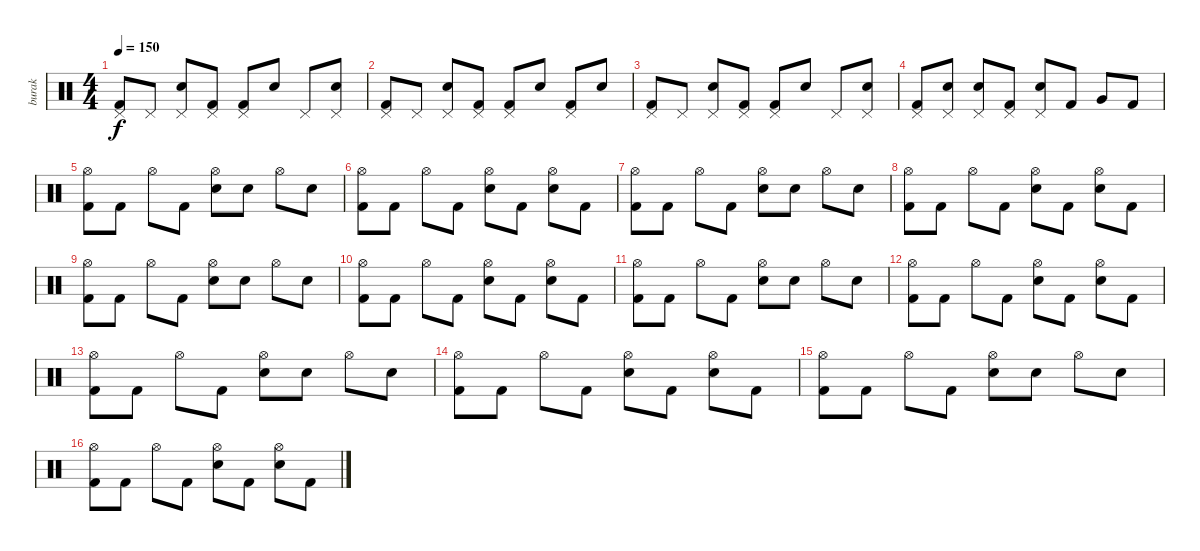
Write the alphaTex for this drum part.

\track ("burak" "burak") {instrument percussion}
\staff {score}
\articulation defaults
\ts (4 4)
\tempo 150
\clef neutral
\ks c
("Pedal Hi-Hat (hit)" "Kick (hit) 2").8{dy f} "Pedal Hi-Hat (hit)".8 ("Pedal Hi-Hat (hit)" "Electric Snare (hit)").8 ("Pedal Hi-Hat (hit)" "Kick (hit) 2").8 ("Pedal Hi-Hat (hit)" "Kick (hit) 2").8 "Electric Snare (hit)".8 "Pedal Hi-Hat (hit)".8 ("Pedal Hi-Hat (hit)" "Electric Snare (hit)").8 |
("Pedal Hi-Hat (hit)" "Kick (hit) 2").8 "Pedal Hi-Hat (hit)".8 ("Pedal Hi-Hat (hit)" "Electric Snare (hit)").8 ("Pedal Hi-Hat (hit)" "Kick (hit) 2").8 ("Pedal Hi-Hat (hit)" "Kick (hit) 2").8 "Electric Snare (hit)".8 ("Pedal Hi-Hat (hit)" "Kick (hit) 2").8 "Electric Snare (hit)".8 |
("Pedal Hi-Hat (hit)" "Kick (hit) 2").8 "Pedal Hi-Hat (hit)".8 ("Pedal Hi-Hat (hit)" "Electric Snare (hit)").8 ("Pedal Hi-Hat (hit)" "Kick (hit) 2").8 ("Pedal Hi-Hat (hit)" "Kick (hit) 2").8 "Electric Snare (hit)".8 "Pedal Hi-Hat (hit)".8 ("Pedal Hi-Hat (hit)" "Electric Snare (hit)").8 |
("Pedal Hi-Hat (hit)" "Kick (hit) 2").8 ("Pedal Hi-Hat (hit)" "Electric Snare (hit)").8 ("Pedal Hi-Hat (hit)" "Electric Snare (hit)").8 ("Pedal Hi-Hat (hit)" "Kick (hit) 2").8 ("Pedal Hi-Hat (hit)" "Electric Snare (hit)").8 "Kick (hit) 2".8 "Very Low Tom (hit)".8 "Kick (hit) 2".8 |
("Hi-Hat (open)" "Kick (hit) 2").8 "Kick (hit) 2".8 "Hi-Hat (open)".8 "Kick (hit) 2".8 ("Hi-Hat (open)" "Electric Snare (hit)").8 "Electric Snare (hit)".8 "Hi-Hat (open)".8 "Electric Snare (hit)".8 |
("Hi-Hat (open)" "Kick (hit) 2").8 "Kick (hit) 2".8 "Hi-Hat (open)".8 "Kick (hit) 2".8 ("Hi-Hat (open)" "Electric Snare (hit)").8 "Kick (hit) 2".8 ("Hi-Hat (open)" "Electric Snare (hit)").8 "Kick (hit) 2".8 |
("Hi-Hat (open)" "Kick (hit) 2").8 "Kick (hit) 2".8 "Hi-Hat (open)".8 "Kick (hit) 2".8 ("Hi-Hat (open)" "Electric Snare (hit)").8 "Electric Snare (hit)".8 "Hi-Hat (open)".8 "Electric Snare (hit)".8 |
("Hi-Hat (open)" "Kick (hit) 2").8 "Kick (hit) 2".8 "Hi-Hat (open)".8 "Kick (hit) 2".8 ("Hi-Hat (open)" "Electric Snare (hit)").8 "Kick (hit) 2".8 ("Hi-Hat (open)" "Electric Snare (hit)").8 "Kick (hit) 2".8 |
("Hi-Hat (open)" "Kick (hit) 2").8 "Kick (hit) 2".8 "Hi-Hat (open)".8 "Kick (hit) 2".8 ("Hi-Hat (open)" "Electric Snare (hit)").8 "Electric Snare (hit)".8 "Hi-Hat (open)".8 "Electric Snare (hit)".8 |
("Hi-Hat (open)" "Kick (hit) 2").8 "Kick (hit) 2".8 "Hi-Hat (open)".8 "Kick (hit) 2".8 ("Hi-Hat (open)" "Electric Snare (hit)").8 "Kick (hit) 2".8 ("Hi-Hat (open)" "Electric Snare (hit)").8 "Kick (hit) 2".8 |
("Hi-Hat (open)" "Kick (hit) 2").8 "Kick (hit) 2".8 "Hi-Hat (open)".8 "Kick (hit) 2".8 ("Hi-Hat (open)" "Electric Snare (hit)").8 "Electric Snare (hit)".8 "Hi-Hat (open)".8 "Electric Snare (hit)".8 |
("Hi-Hat (open)" "Kick (hit) 2").8 "Kick (hit) 2".8 "Hi-Hat (open)".8 "Kick (hit) 2".8 ("Hi-Hat (open)" "Electric Snare (hit)").8 "Kick (hit) 2".8 ("Hi-Hat (open)" "Electric Snare (hit)").8 "Kick (hit) 2".8 |
("Hi-Hat (open)" "Kick (hit) 2").8 "Kick (hit) 2".8 "Hi-Hat (open)".8 "Kick (hit) 2".8 ("Hi-Hat (open)" "Electric Snare (hit)").8 "Electric Snare (hit)".8 "Hi-Hat (open)".8 "Electric Snare (hit)".8 |
("Hi-Hat (open)" "Kick (hit) 2").8 "Kick (hit) 2".8 "Hi-Hat (open)".8 "Kick (hit) 2".8 ("Hi-Hat (open)" "Electric Snare (hit)").8 "Kick (hit) 2".8 ("Hi-Hat (open)" "Electric Snare (hit)").8 "Kick (hit) 2".8 |
("Hi-Hat (open)" "Kick (hit) 2").8 "Kick (hit) 2".8 "Hi-Hat (open)".8 "Kick (hit) 2".8 ("Hi-Hat (open)" "Electric Snare (hit)").8 "Electric Snare (hit)".8 "Hi-Hat (open)".8 "Electric Snare (hit)".8 |
("Hi-Hat (open)" "Kick (hit) 2").8 "Kick (hit) 2".8 "Hi-Hat (open)".8 "Kick (hit) 2".8 ("Hi-Hat (open)" "Electric Snare (hit)").8 "Kick (hit) 2".8 ("Hi-Hat (open)" "Electric Snare (hit)").8 "Kick (hit) 2".8
